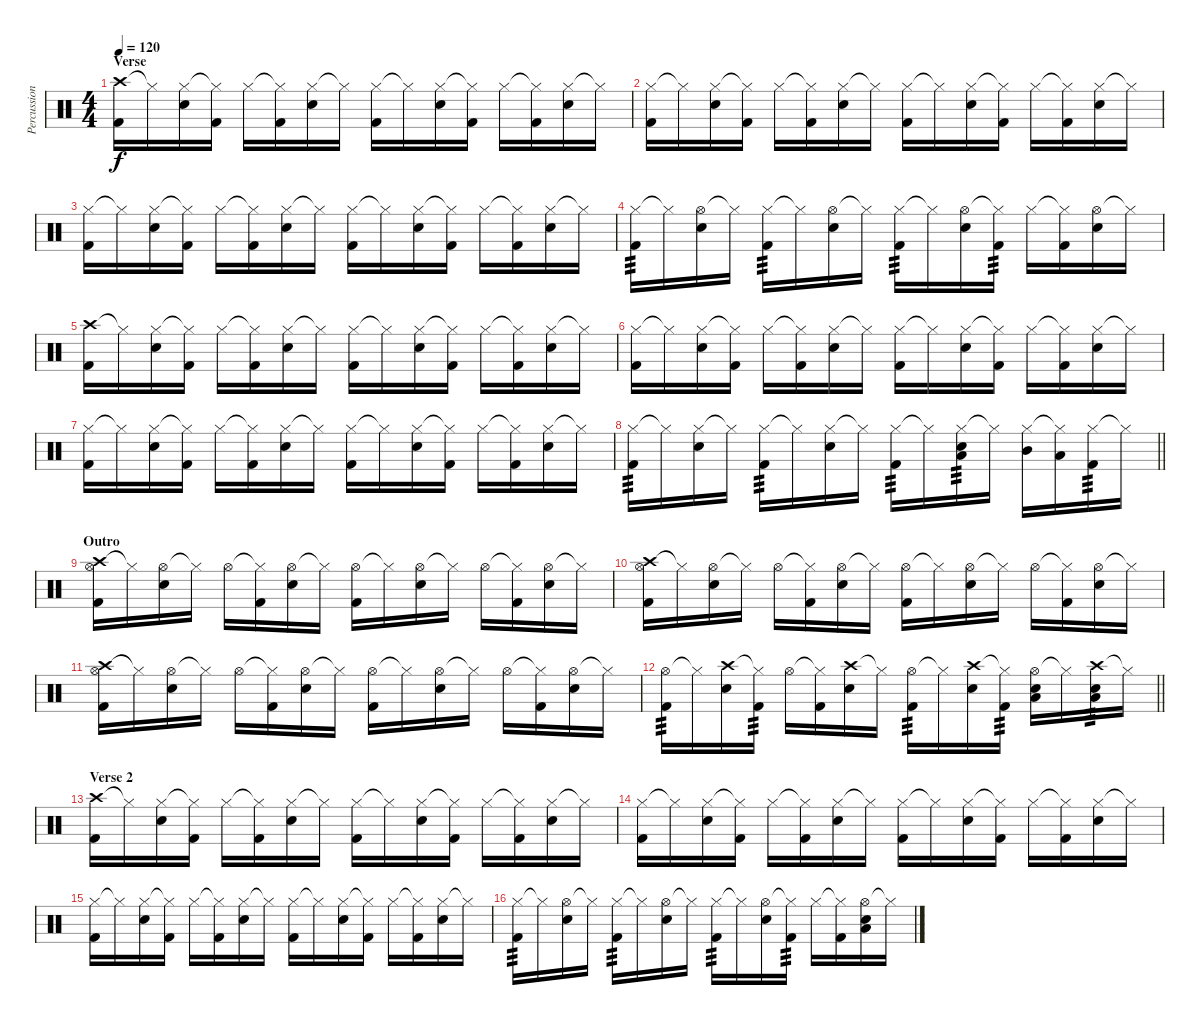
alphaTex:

\track ("Percussion" "Percussion") {instrument percussion}
\staff {score}
\articulation defaults
\ts (4 4)
\section ("" "Verse")
\tempo 120
\clef neutral
\ks c
("Crash high (hit)" "Kick (hit) 2").16{dy f} "Hi-Hat (closed)"{t}.16 ("Hi-Hat (closed)" "Electric Snare (hit)").16 ("Hi-Hat (closed)"{t} "Kick (hit) 2").16 "Hi-Hat (closed)".16 ("Hi-Hat (closed)"{t} "Kick (hit) 2").16 ("Hi-Hat (closed)" "Electric Snare (hit)").16 "Hi-Hat (closed)"{t}.16 ("Hi-Hat (closed)" "Kick (hit) 2").16 "Hi-Hat (closed)"{t}.16 ("Hi-Hat (closed)" "Electric Snare (hit)").16 ("Hi-Hat (closed)"{t} "Kick (hit) 2").16 "Hi-Hat (closed)".16 ("Hi-Hat (closed)"{t} "Kick (hit) 2").16 ("Hi-Hat (closed)" "Electric Snare (hit)").16 "Hi-Hat (closed)"{t}.16 |
("Hi-Hat (closed)" "Kick (hit) 2").16 "Hi-Hat (closed)"{t}.16 ("Hi-Hat (closed)" "Electric Snare (hit)").16 ("Hi-Hat (closed)"{t} "Kick (hit) 2").16 "Hi-Hat (closed)".16 ("Hi-Hat (closed)"{t} "Kick (hit) 2").16 ("Hi-Hat (closed)" "Electric Snare (hit)").16 "Hi-Hat (closed)"{t}.16 ("Hi-Hat (closed)" "Kick (hit) 2").16 "Hi-Hat (closed)"{t}.16 ("Hi-Hat (closed)" "Electric Snare (hit)").16 ("Hi-Hat (closed)"{t} "Kick (hit) 2").16 "Hi-Hat (closed)".16 ("Hi-Hat (closed)"{t} "Kick (hit) 2").16 ("Hi-Hat (closed)" "Electric Snare (hit)").16 "Hi-Hat (closed)"{t}.16 |
("Hi-Hat (closed)" "Kick (hit) 2").16 "Hi-Hat (closed)"{t}.16 ("Hi-Hat (closed)" "Electric Snare (hit)").16 ("Hi-Hat (closed)"{t} "Kick (hit) 2").16 "Hi-Hat (closed)".16 ("Hi-Hat (closed)"{t} "Kick (hit) 2").16 ("Hi-Hat (closed)" "Electric Snare (hit)").16 "Hi-Hat (closed)"{t}.16 ("Hi-Hat (closed)" "Kick (hit) 2").16 "Hi-Hat (closed)"{t}.16 ("Hi-Hat (closed)" "Electric Snare (hit)").16 ("Hi-Hat (closed)"{t} "Kick (hit) 2").16 "Hi-Hat (closed)".16 ("Hi-Hat (closed)"{t} "Kick (hit) 2").16 ("Hi-Hat (closed)" "Electric Snare (hit)").16 "Hi-Hat (closed)"{t}.16 |
("Hi-Hat (closed)" "Kick (hit) 2").16{tp 3} "Hi-Hat (closed)"{t}.16 ("Hi-Hat (open)" "Electric Snare (hit)").16 "Hi-Hat (closed)"{t}.16 ("Hi-Hat (closed)" "Kick (hit) 2").16{tp 3} "Hi-Hat (closed)"{t}.16 ("Hi-Hat (open)" "Electric Snare (hit)").16 "Hi-Hat (closed)"{t}.16 ("Hi-Hat (closed)" "Kick (hit) 2").16{tp 3} "Hi-Hat (closed)"{t}.16 ("Hi-Hat (open)" "Electric Snare (hit)").16 ("Hi-Hat (closed)"{t} "Kick (hit) 2").16{tp 3} "Hi-Hat (closed)".16 ("Hi-Hat (closed)"{t} "Kick (hit) 2").16 ("Hi-Hat (open)" "Electric Snare (hit)").16 "Hi-Hat (closed)"{t}.16 |
("Crash high (hit)" "Kick (hit) 2").16 "Hi-Hat (closed)"{t}.16 ("Hi-Hat (closed)" "Electric Snare (hit)").16 ("Hi-Hat (closed)"{t} "Kick (hit) 2").16 "Hi-Hat (closed)".16 ("Hi-Hat (closed)"{t} "Kick (hit) 2").16 ("Hi-Hat (closed)" "Electric Snare (hit)").16 "Hi-Hat (closed)"{t}.16 ("Hi-Hat (closed)" "Kick (hit) 2").16 "Hi-Hat (closed)"{t}.16 ("Hi-Hat (closed)" "Electric Snare (hit)").16 ("Hi-Hat (closed)"{t} "Kick (hit) 2").16 "Hi-Hat (closed)".16 ("Hi-Hat (closed)"{t} "Kick (hit) 2").16 ("Hi-Hat (closed)" "Electric Snare (hit)").16 "Hi-Hat (closed)"{t}.16 |
("Hi-Hat (closed)" "Kick (hit) 2").16 "Hi-Hat (closed)"{t}.16 ("Hi-Hat (closed)" "Electric Snare (hit)").16 ("Hi-Hat (closed)"{t} "Kick (hit) 2").16 "Hi-Hat (closed)".16 ("Hi-Hat (closed)"{t} "Kick (hit) 2").16 ("Hi-Hat (closed)" "Electric Snare (hit)").16 "Hi-Hat (closed)"{t}.16 ("Hi-Hat (closed)" "Kick (hit) 2").16 "Hi-Hat (closed)"{t}.16 ("Hi-Hat (closed)" "Electric Snare (hit)").16 ("Hi-Hat (closed)"{t} "Kick (hit) 2").16 "Hi-Hat (closed)".16 ("Hi-Hat (closed)"{t} "Kick (hit) 2").16 ("Hi-Hat (closed)" "Electric Snare (hit)").16 "Hi-Hat (closed)"{t}.16 |
("Hi-Hat (closed)" "Kick (hit) 2").16 "Hi-Hat (closed)"{t}.16 ("Hi-Hat (closed)" "Electric Snare (hit)").16 ("Hi-Hat (closed)"{t} "Kick (hit) 2").16 "Hi-Hat (closed)".16 ("Hi-Hat (closed)"{t} "Kick (hit) 2").16 ("Hi-Hat (closed)" "Electric Snare (hit)").16 "Hi-Hat (closed)"{t}.16 ("Hi-Hat (closed)" "Kick (hit) 2").16 "Hi-Hat (closed)"{t}.16 ("Hi-Hat (closed)" "Electric Snare (hit)").16 ("Hi-Hat (closed)"{t} "Kick (hit) 2").16 "Hi-Hat (closed)".16 ("Hi-Hat (closed)"{t} "Kick (hit) 2").16 ("Hi-Hat (closed)" "Electric Snare (hit)").16 "Hi-Hat (closed)"{t}.16 |
\barLineRight lightlight
("Hi-Hat (closed)" "Kick (hit) 2").16{tp 3} "Hi-Hat (closed)"{t}.16 ("Hi-Hat (closed)" "Electric Snare (hit)").16 "Hi-Hat (closed)"{t}.16 ("Hi-Hat (closed)" "Kick (hit) 2").16{tp 3} "Hi-Hat (closed)"{t}.16 ("Hi-Hat (closed)" "Electric Snare (hit)").16 "Hi-Hat (closed)"{t}.16 ("Hi-Hat (closed)" "Kick (hit) 2").16{tp 3} "Hi-Hat (closed)"{t}.16 ("Hi-Hat (closed)" "Electric Snare (hit)" "Low Tom (hit)").16{tp 3} "Hi-Hat (closed)"{t}.16 ("Hi-Hat (closed)" "Mid Tom (hit)").16 ("Hi-Hat (closed)"{t} "Low Tom (hit)").16 ("Hi-Hat (closed)" "Kick (hit) 2").16{tp 3} "Hi-Hat (closed)"{t}.16 |
\section ("" "Outro")
("Crash high (hit)" "Hi-Hat (open)" "Kick (hit) 2").16 "Hi-Hat (closed)"{t}.16 ("Hi-Hat (open)" "Electric Snare (hit)").16 "Hi-Hat (closed)"{t}.16 "Hi-Hat (open)".16 ("Hi-Hat (closed)"{t} "Kick (hit) 2").16 ("Hi-Hat (open)" "Electric Snare (hit)").16 "Hi-Hat (closed)"{t}.16 ("Hi-Hat (open)" "Kick (hit) 2").16 "Hi-Hat (closed)"{t}.16 ("Hi-Hat (open)" "Electric Snare (hit)").16 "Hi-Hat (closed)"{t}.16 "Hi-Hat (open)".16 ("Hi-Hat (closed)"{t} "Kick (hit) 2").16 ("Hi-Hat (open)" "Electric Snare (hit)").16 "Hi-Hat (closed)"{t}.16 |
("Crash high (hit)" "Hi-Hat (open)" "Kick (hit) 2").16 "Hi-Hat (closed)"{t}.16 ("Hi-Hat (open)" "Electric Snare (hit)").16 "Hi-Hat (closed)"{t}.16 "Hi-Hat (open)".16 ("Hi-Hat (closed)"{t} "Kick (hit) 2").16 ("Hi-Hat (open)" "Electric Snare (hit)").16 "Hi-Hat (closed)"{t}.16 ("Hi-Hat (open)" "Kick (hit) 2").16 "Hi-Hat (closed)"{t}.16 ("Hi-Hat (open)" "Electric Snare (hit)").16 "Hi-Hat (closed)"{t}.16 "Hi-Hat (open)".16 ("Hi-Hat (closed)"{t} "Kick (hit) 2").16 ("Hi-Hat (open)" "Electric Snare (hit)").16 "Hi-Hat (closed)"{t}.16 |
("Crash high (hit)" "Hi-Hat (open)" "Kick (hit) 2").16 "Hi-Hat (closed)"{t}.16 ("Hi-Hat (open)" "Electric Snare (hit)").16 "Hi-Hat (closed)"{t}.16 "Hi-Hat (open)".16 ("Hi-Hat (closed)"{t} "Kick (hit) 2").16 ("Hi-Hat (open)" "Electric Snare (hit)").16 "Hi-Hat (closed)"{t}.16 ("Hi-Hat (open)" "Kick (hit) 2").16 "Hi-Hat (closed)"{t}.16 ("Hi-Hat (open)" "Electric Snare (hit)").16 "Hi-Hat (closed)"{t}.16 "Hi-Hat (open)".16 ("Hi-Hat (closed)"{t} "Kick (hit) 2").16 ("Hi-Hat (open)" "Electric Snare (hit)").16 "Hi-Hat (closed)"{t}.16 |
\barLineRight lightlight
("Hi-Hat (open)" "Kick (hit) 2").16{tp 3} "Hi-Hat (closed)"{t}.16 ("Crash high (hit)" "Electric Snare (hit)").16 ("Hi-Hat (closed)"{t} "Kick (hit) 2").16{tp 3} "Hi-Hat (open)".16 ("Hi-Hat (closed)"{t} "Kick (hit) 2").16 ("Crash high (hit)" "Electric Snare (hit)").16 "Hi-Hat (closed)"{t}.16 ("Hi-Hat (open)" "Kick (hit) 2").16{tp 3} "Hi-Hat (closed)"{t}.16 ("Crash high (hit)" "Electric Snare (hit)").16 ("Hi-Hat (closed)"{t} "Kick (hit) 2").16{tp 3} ("Hi-Hat (open)" "Electric Snare (hit)" "Low Tom (hit)").16 "Hi-Hat (closed)"{t}.16 ("Crash high (hit)" "Electric Snare (hit)" "Low Tom (hit)").16{tp 3} "Hi-Hat (closed)"{t}.16 |
\section ("" "Verse 2")
("Crash high (hit)" "Kick (hit) 2").16 "Hi-Hat (closed)"{t}.16 ("Hi-Hat (closed)" "Electric Snare (hit)").16 ("Hi-Hat (closed)"{t} "Kick (hit) 2").16 "Hi-Hat (closed)".16 ("Hi-Hat (closed)"{t} "Kick (hit) 2").16 ("Hi-Hat (closed)" "Electric Snare (hit)").16 "Hi-Hat (closed)"{t}.16 ("Hi-Hat (closed)" "Kick (hit) 2").16 "Hi-Hat (closed)"{t}.16 ("Hi-Hat (closed)" "Electric Snare (hit)").16 ("Hi-Hat (closed)"{t} "Kick (hit) 2").16 "Hi-Hat (closed)".16 ("Hi-Hat (closed)"{t} "Kick (hit) 2").16 ("Hi-Hat (closed)" "Electric Snare (hit)").16 "Hi-Hat (closed)"{t}.16 |
("Hi-Hat (closed)" "Kick (hit) 2").16 "Hi-Hat (closed)"{t}.16 ("Hi-Hat (closed)" "Electric Snare (hit)").16 ("Hi-Hat (closed)"{t} "Kick (hit) 2").16 "Hi-Hat (closed)".16 ("Hi-Hat (closed)"{t} "Kick (hit) 2").16 ("Hi-Hat (closed)" "Electric Snare (hit)").16 "Hi-Hat (closed)"{t}.16 ("Hi-Hat (closed)" "Kick (hit) 2").16 "Hi-Hat (closed)"{t}.16 ("Hi-Hat (closed)" "Electric Snare (hit)").16 ("Hi-Hat (closed)"{t} "Kick (hit) 2").16 "Hi-Hat (closed)".16 ("Hi-Hat (closed)"{t} "Kick (hit) 2").16 ("Hi-Hat (closed)" "Electric Snare (hit)").16 "Hi-Hat (closed)"{t}.16 |
("Hi-Hat (closed)" "Kick (hit) 2").16 "Hi-Hat (closed)"{t}.16 ("Hi-Hat (closed)" "Electric Snare (hit)").16 ("Hi-Hat (closed)"{t} "Kick (hit) 2").16 "Hi-Hat (closed)".16 ("Hi-Hat (closed)"{t} "Kick (hit) 2").16 ("Hi-Hat (closed)" "Electric Snare (hit)").16 "Hi-Hat (closed)"{t}.16 ("Hi-Hat (closed)" "Kick (hit) 2").16 "Hi-Hat (closed)"{t}.16 ("Hi-Hat (closed)" "Electric Snare (hit)").16 ("Hi-Hat (closed)"{t} "Kick (hit) 2").16 "Hi-Hat (closed)".16 ("Hi-Hat (closed)"{t} "Kick (hit) 2").16 ("Hi-Hat (closed)" "Electric Snare (hit)").16 "Hi-Hat (closed)"{t}.16 |
("Hi-Hat (closed)" "Kick (hit) 2").16{tp 3} "Hi-Hat (closed)"{t}.16 ("Hi-Hat (open)" "Electric Snare (hit)").16 "Hi-Hat (closed)"{t}.16 ("Hi-Hat (closed)" "Kick (hit) 2").16{tp 3} "Hi-Hat (closed)"{t}.16 ("Hi-Hat (open)" "Electric Snare (hit)").16 "Hi-Hat (closed)"{t}.16 ("Hi-Hat (closed)" "Kick (hit) 2").16{tp 3} "Hi-Hat (closed)"{t}.16 ("Hi-Hat (open)" "Electric Snare (hit)").16 ("Hi-Hat (closed)"{t} "Kick (hit) 2").16{tp 3} "Hi-Hat (closed)".16 ("Hi-Hat (closed)"{t} "Kick (hit) 2").16 ("Hi-Hat (open)" "Electric Snare (hit)" "Low Tom (hit)").16 "Hi-Hat (closed)"{t}.16
